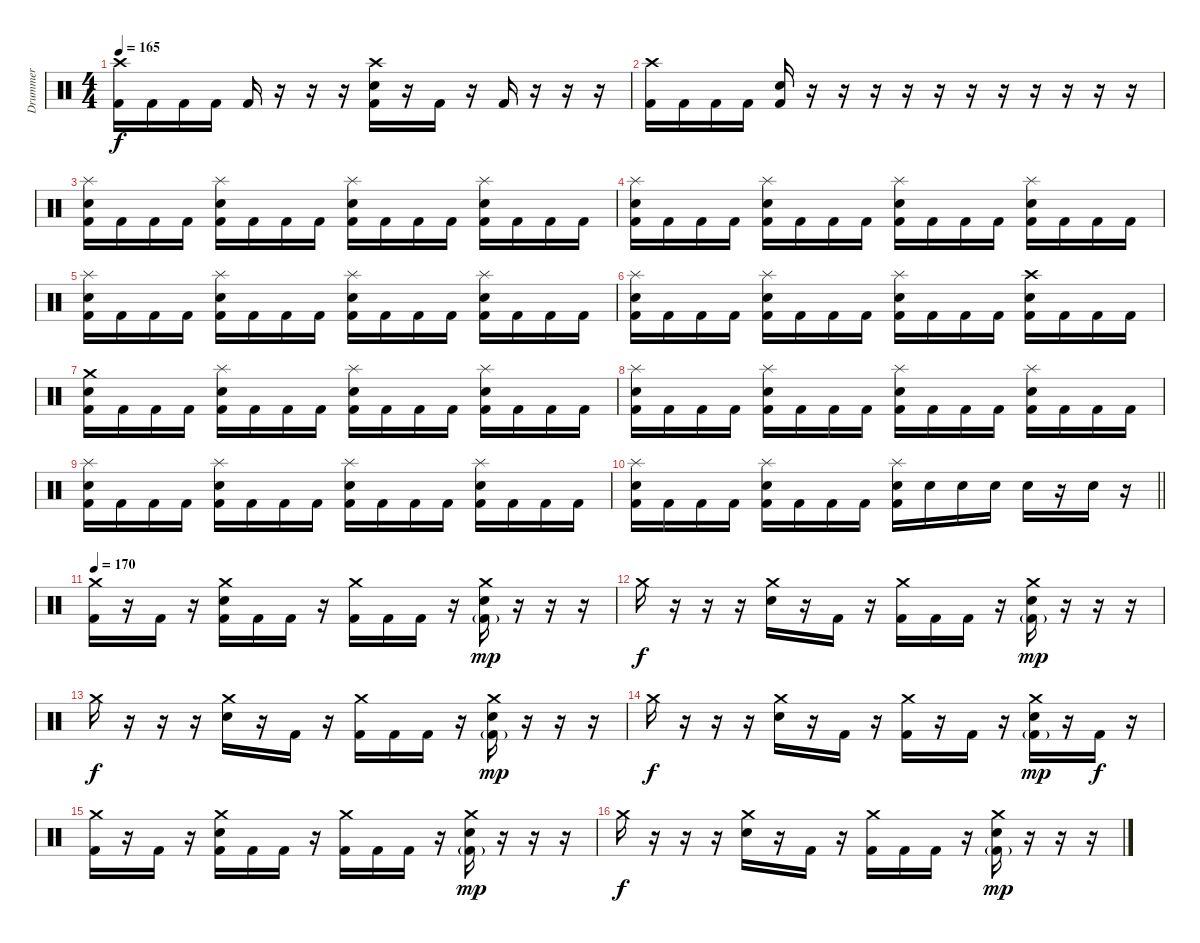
\track ("Drummer" "Drummer") {instrument percussion}
\staff {score}
\articulation defaults
\ts (4 4)
\tempo 165
\clef neutral
\ks c
("Crash high (hit)" "Kick (hit) 2").16{dy f} "Kick (hit) 2".16 "Kick (hit) 2".16 "Kick (hit) 2".16 "Kick (hit) 2".16 r.16 r.16 r.16 ("Crash high (hit)" "Snare (hit) 2" "Kick (hit) 2").16 r.16 "Kick (hit) 2".16 r.16 "Kick (hit) 2".16 r.16 r.16 r.16 |
("Crash high (hit)" "Kick (hit) 2").16 "Kick (hit) 2".16 "Kick (hit) 2".16 "Kick (hit) 2".16 ("Electric Snare (hit)" "Kick (hit) 2").16 r.16 r.16 r.16 r.16 r.16 r.16 r.16 r.16 r.16 r.16 r.16 |
("Splash (hit)" "Snare (hit) 2" "Kick (hit) 2").16 "Kick (hit) 2".16 "Kick (hit) 2".16 "Kick (hit) 2".16 ("Splash (hit)" "Snare (hit) 2" "Kick (hit) 2").16 "Kick (hit) 2".16 "Kick (hit) 2".16 "Kick (hit) 2".16 ("Splash (hit)" "Snare (hit) 2" "Kick (hit) 2").16 "Kick (hit) 2".16 "Kick (hit) 2".16 "Kick (hit) 2".16 ("Splash (hit)" "Snare (hit) 2" "Kick (hit) 2").16 "Kick (hit) 2".16 "Kick (hit) 2".16 "Kick (hit) 2".16 |
("Splash (hit)" "Snare (hit) 2" "Kick (hit) 2").16 "Kick (hit) 2".16 "Kick (hit) 2".16 "Kick (hit) 2".16 ("Splash (hit)" "Snare (hit) 2" "Kick (hit) 2").16 "Kick (hit) 2".16 "Kick (hit) 2".16 "Kick (hit) 2".16 ("Splash (hit)" "Snare (hit) 2" "Kick (hit) 2").16 "Kick (hit) 2".16 "Kick (hit) 2".16 "Kick (hit) 2".16 ("Splash (hit)" "Snare (hit) 2" "Kick (hit) 2").16 "Kick (hit) 2".16 "Kick (hit) 2".16 "Kick (hit) 2".16 |
("Splash (hit)" "Snare (hit) 2" "Kick (hit) 2").16 "Kick (hit) 2".16 "Kick (hit) 2".16 "Kick (hit) 2".16 ("Splash (hit)" "Snare (hit) 2" "Kick (hit) 2").16 "Kick (hit) 2".16 "Kick (hit) 2".16 "Kick (hit) 2".16 ("Splash (hit)" "Snare (hit) 2" "Kick (hit) 2").16 "Kick (hit) 2".16 "Kick (hit) 2".16 "Kick (hit) 2".16 ("Splash (hit)" "Snare (hit) 2" "Kick (hit) 2").16 "Kick (hit) 2".16 "Kick (hit) 2".16 "Kick (hit) 2".16 |
("Splash (hit)" "Snare (hit) 2" "Kick (hit) 2").16 "Kick (hit) 2".16 "Kick (hit) 2".16 "Kick (hit) 2".16 ("Splash (hit)" "Snare (hit) 2" "Kick (hit) 2").16 "Kick (hit) 2".16 "Kick (hit) 2".16 "Kick (hit) 2".16 ("Splash (hit)" "Snare (hit) 2" "Kick (hit) 2").16 "Kick (hit) 2".16 "Kick (hit) 2".16 "Kick (hit) 2".16 ("Crash high (hit)" "Snare (hit) 2" "Kick (hit) 2").16 "Kick (hit) 2".16 "Kick (hit) 2".16 "Kick (hit) 2".16 |
("Crash medium (hit)" "Snare (hit) 2" "Kick (hit) 2").16 "Kick (hit) 2".16 "Kick (hit) 2".16 "Kick (hit) 2".16 ("Splash (hit)" "Snare (hit) 2" "Kick (hit) 2").16 "Kick (hit) 2".16 "Kick (hit) 2".16 "Kick (hit) 2".16 ("Splash (hit)" "Snare (hit) 2" "Kick (hit) 2").16 "Kick (hit) 2".16 "Kick (hit) 2".16 "Kick (hit) 2".16 ("Splash (hit)" "Snare (hit) 2" "Kick (hit) 2").16 "Kick (hit) 2".16 "Kick (hit) 2".16 "Kick (hit) 2".16 |
("Splash (hit)" "Snare (hit) 2" "Kick (hit) 2").16 "Kick (hit) 2".16 "Kick (hit) 2".16 "Kick (hit) 2".16 ("Splash (hit)" "Snare (hit) 2" "Kick (hit) 2").16 "Kick (hit) 2".16 "Kick (hit) 2".16 "Kick (hit) 2".16 ("Splash (hit)" "Snare (hit) 2" "Kick (hit) 2").16 "Kick (hit) 2".16 "Kick (hit) 2".16 "Kick (hit) 2".16 ("Splash (hit)" "Snare (hit) 2" "Kick (hit) 2").16 "Kick (hit) 2".16 "Kick (hit) 2".16 "Kick (hit) 2".16 |
("Splash (hit)" "Snare (hit) 2" "Kick (hit) 2").16 "Kick (hit) 2".16 "Kick (hit) 2".16 "Kick (hit) 2".16 ("Splash (hit)" "Snare (hit) 2" "Kick (hit) 2").16 "Kick (hit) 2".16 "Kick (hit) 2".16 "Kick (hit) 2".16 ("Splash (hit)" "Snare (hit) 2" "Kick (hit) 2").16 "Kick (hit) 2".16 "Kick (hit) 2".16 "Kick (hit) 2".16 ("Splash (hit)" "Snare (hit) 2" "Kick (hit) 2").16 "Kick (hit) 2".16 "Kick (hit) 2".16 "Kick (hit) 2".16 |
\barLineRight lightlight
("Splash (hit)" "Snare (hit) 2" "Kick (hit) 2").16 "Kick (hit) 2".16 "Kick (hit) 2".16 "Kick (hit) 2".16 ("Splash (hit)" "Snare (hit) 2" "Kick (hit) 2").16 "Kick (hit) 2".16 "Kick (hit) 2".16 "Kick (hit) 2".16 ("Splash (hit)" "Snare (hit) 2" "Kick (hit) 2").16 "Snare (hit) 2".16 "Snare (hit) 2".16 "Snare (hit) 2".16 "Snare (hit) 2".16 r.16 "Snare (hit) 2".16 r.16 |
\tempo 170
("Crash medium (hit)" "Kick (hit) 2").16 r.16 "Kick (hit) 2".16 r.16 ("Crash medium (hit)" "Snare (hit) 2" "Kick (hit) 2").16 "Kick (hit) 2".16 "Kick (hit) 2".16 r.16 ("Crash medium (hit)" "Kick (hit) 2").16 "Kick (hit) 2".16 "Kick (hit) 2".16 r.16 ("Crash medium (hit)" "Snare (hit) 2" "Kick (hit) 2"{g}).16{dy mp} r.16 r.16 r.16 |
"Crash medium (hit)".16{dy f} r.16 r.16 r.16 ("Crash medium (hit)" "Snare (hit) 2").16 r.16 "Kick (hit) 2".16 r.16 ("Crash medium (hit)" "Kick (hit) 2").16 "Kick (hit) 2".16 "Kick (hit) 2".16 r.16 ("Crash medium (hit)" "Snare (hit) 2" "Kick (hit) 2"{g}).16{dy mp} r.16 r.16 r.16 |
"Crash medium (hit)".16{dy f} r.16 r.16 r.16 ("Crash medium (hit)" "Snare (hit) 2").16 r.16 "Kick (hit) 2".16 r.16 ("Crash medium (hit)" "Kick (hit) 2").16 "Kick (hit) 2".16 "Kick (hit) 2".16 r.16 ("Crash medium (hit)" "Snare (hit) 2" "Kick (hit) 2"{g}).16{dy mp} r.16 r.16 r.16 |
"Crash medium (hit)".16{dy f} r.16 r.16 r.16 ("Crash medium (hit)" "Snare (hit) 2").16 r.16 "Kick (hit) 2".16 r.16 ("Crash medium (hit)" "Kick (hit) 2").16 r.16 "Kick (hit) 2".16 r.16 ("Crash medium (hit)" "Snare (hit) 2" "Kick (hit) 2"{g}).16{dy mp} r.16 "Kick (hit) 2".16{dy f} r.16 |
("Crash medium (hit)" "Kick (hit) 2").16 r.16 "Kick (hit) 2".16 r.16 ("Crash medium (hit)" "Snare (hit) 2" "Kick (hit) 2").16 "Kick (hit) 2".16 "Kick (hit) 2".16 r.16 ("Crash medium (hit)" "Kick (hit) 2").16 "Kick (hit) 2".16 "Kick (hit) 2".16 r.16 ("Crash medium (hit)" "Snare (hit) 2" "Kick (hit) 2"{g}).16{dy mp} r.16 r.16 r.16 |
"Crash medium (hit)".16{dy f} r.16 r.16 r.16 ("Crash medium (hit)" "Snare (hit) 2").16 r.16 "Kick (hit) 2".16 r.16 ("Crash medium (hit)" "Kick (hit) 2").16 "Kick (hit) 2".16 "Kick (hit) 2".16 r.16 ("Crash medium (hit)" "Snare (hit) 2" "Kick (hit) 2"{g}).16{dy mp} r.16 r.16 r.16
